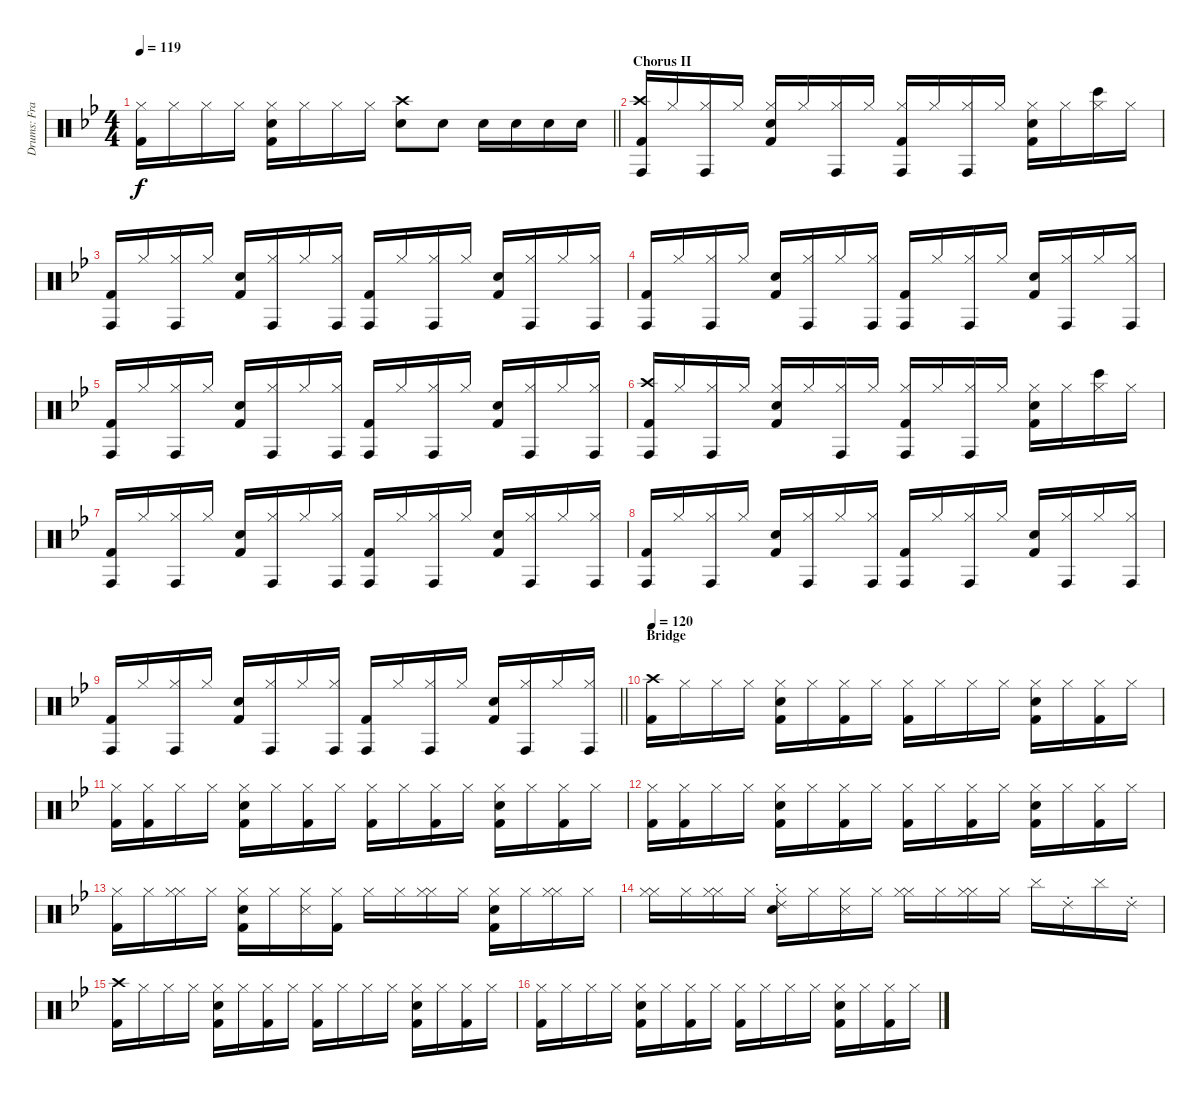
\track ("Drums: Frank" "Drums: Fra") {instrument percussion}
\staff {score}
\articulation defaults
\ts (4 4)
\tempo 119
\clef neutral
\barLineRight lightlight
\ks bb
("Hi-Hat (closed)" "Kick (hit) 2").16{dy f} "Hi-Hat (closed)".16 "Hi-Hat (closed)".16 "Hi-Hat (closed)".16 ("Hi-Hat (closed)" "Electric Snare (hit)" "Kick (hit) 2").16 "Hi-Hat (closed)".16 "Hi-Hat (closed)".16 "Hi-Hat (closed)".16 ("Crash high (hit)" "Snare (hit) 2").8 "Snare (hit) 2".8 "Snare (hit) 2".16 "Snare (hit) 2".16 "Snare (hit) 2".16 "Snare (hit) 2".16 |
\section ("" "Chorus II")
("Crash high (hit)" "Conga high (hit)" "Kick (hit) 2").16 "Hi-Hat (closed)".16 ("Hi-Hat (closed)" "Conga high (hit)").16 "Hi-Hat (closed)".16 ("Hi-Hat (closed)" "Snare (hit) 2" "Kick (hit) 2").16 "Hi-Hat (closed)".16 ("Hi-Hat (closed)" "Conga high (hit)").16 "Hi-Hat (closed)".16 ("Hi-Hat (closed)" "Conga high (hit)" "Kick (hit) 2").16 "Hi-Hat (closed)".16 ("Hi-Hat (closed)" "Conga high (hit)").16 "Hi-Hat (closed)".16 ("Hi-Hat (closed)" "Snare (hit) 2" "Kick (hit) 2").16 "Hi-Hat (closed)".16 ("Hi-Hat (closed)" "Bongo High (hit)").16 "Hi-Hat (closed)".16 |
("Conga high (hit)" "Kick (hit) 2").16 "Hi-Hat (closed)".16 ("Hi-Hat (closed)" "Conga high (hit)").16 "Hi-Hat (closed)".16 ("Electric Snare (hit)" "Kick (hit) 2").16 ("Hi-Hat (closed)" "Conga high (hit)").16 "Hi-Hat (closed)".16 ("Hi-Hat (closed)" "Conga high (hit)").16 ("Conga high (hit)" "Kick (hit) 2").16 "Hi-Hat (closed)".16 ("Hi-Hat (closed)" "Conga high (hit)").16 "Hi-Hat (closed)".16 ("Electric Snare (hit)" "Kick (hit) 2").16 ("Hi-Hat (closed)" "Conga high (hit)").16 "Hi-Hat (closed)".16 ("Hi-Hat (closed)" "Conga high (hit)").16 |
("Conga high (hit)" "Kick (hit) 2").16 "Hi-Hat (closed)".16 ("Hi-Hat (closed)" "Conga high (hit)").16 "Hi-Hat (closed)".16 ("Electric Snare (hit)" "Kick (hit) 2").16 ("Hi-Hat (closed)" "Conga high (hit)").16 "Hi-Hat (closed)".16 ("Hi-Hat (closed)" "Conga high (hit)").16 ("Conga high (hit)" "Kick (hit) 2").16 "Hi-Hat (closed)".16 ("Hi-Hat (closed)" "Conga high (hit)").16 "Hi-Hat (closed)".16 ("Electric Snare (hit)" "Kick (hit) 2").16 ("Hi-Hat (closed)" "Conga high (hit)").16 "Hi-Hat (closed)".16 ("Hi-Hat (closed)" "Conga high (hit)").16 |
("Conga high (hit)" "Kick (hit) 2").16 "Hi-Hat (closed)".16 ("Hi-Hat (closed)" "Conga high (hit)").16 "Hi-Hat (closed)".16 ("Electric Snare (hit)" "Kick (hit) 2").16 ("Hi-Hat (closed)" "Conga high (hit)").16 "Hi-Hat (closed)".16 ("Hi-Hat (closed)" "Conga high (hit)").16 ("Conga high (hit)" "Kick (hit) 2").16 "Hi-Hat (closed)".16 ("Hi-Hat (closed)" "Conga high (hit)").16 "Hi-Hat (closed)".16 ("Electric Snare (hit)" "Kick (hit) 2").16 ("Hi-Hat (closed)" "Conga high (hit)").16 "Hi-Hat (closed)".16 ("Hi-Hat (closed)" "Conga high (hit)").16 |
("Crash high (hit)" "Conga high (hit)" "Kick (hit) 2").16 "Hi-Hat (closed)".16 ("Hi-Hat (closed)" "Conga high (hit)").16 "Hi-Hat (closed)".16 ("Hi-Hat (closed)" "Snare (hit) 2" "Kick (hit) 2").16 "Hi-Hat (closed)".16 ("Hi-Hat (closed)" "Conga high (hit)").16 "Hi-Hat (closed)".16 ("Hi-Hat (closed)" "Conga high (hit)" "Kick (hit) 2").16 "Hi-Hat (closed)".16 ("Hi-Hat (closed)" "Conga high (hit)").16 "Hi-Hat (closed)".16 ("Hi-Hat (closed)" "Snare (hit) 2" "Kick (hit) 2").16 "Hi-Hat (closed)".16 ("Hi-Hat (closed)" "Bongo High (hit)").16 "Hi-Hat (closed)".16 |
("Conga high (hit)" "Kick (hit) 2").16 "Hi-Hat (closed)".16 ("Hi-Hat (closed)" "Conga high (hit)").16 "Hi-Hat (closed)".16 ("Electric Snare (hit)" "Kick (hit) 2").16 ("Hi-Hat (closed)" "Conga high (hit)").16 "Hi-Hat (closed)".16 ("Hi-Hat (closed)" "Conga high (hit)").16 ("Conga high (hit)" "Kick (hit) 2").16 "Hi-Hat (closed)".16 ("Hi-Hat (closed)" "Conga high (hit)").16 "Hi-Hat (closed)".16 ("Electric Snare (hit)" "Kick (hit) 2").16 ("Hi-Hat (closed)" "Conga high (hit)").16 "Hi-Hat (closed)".16 ("Hi-Hat (closed)" "Conga high (hit)").16 |
("Conga high (hit)" "Kick (hit) 2").16 "Hi-Hat (closed)".16 ("Hi-Hat (closed)" "Conga high (hit)").16 "Hi-Hat (closed)".16 ("Electric Snare (hit)" "Kick (hit) 2").16 ("Hi-Hat (closed)" "Conga high (hit)").16 "Hi-Hat (closed)".16 ("Hi-Hat (closed)" "Conga high (hit)").16 ("Conga high (hit)" "Kick (hit) 2").16 "Hi-Hat (closed)".16 ("Hi-Hat (closed)" "Conga high (hit)").16 "Hi-Hat (closed)".16 ("Electric Snare (hit)" "Kick (hit) 2").16 ("Hi-Hat (closed)" "Conga high (hit)").16 "Hi-Hat (closed)".16 ("Hi-Hat (closed)" "Conga high (hit)").16 |
\barLineRight lightlight
("Conga high (hit)" "Kick (hit) 2").16 "Hi-Hat (closed)".16 ("Hi-Hat (closed)" "Conga high (hit)").16 "Hi-Hat (closed)".16 ("Electric Snare (hit)" "Kick (hit) 2").16 ("Hi-Hat (closed)" "Conga high (hit)").16 "Hi-Hat (closed)".16 ("Hi-Hat (closed)" "Conga high (hit)").16 ("Conga high (hit)" "Kick (hit) 2").16 "Hi-Hat (closed)".16 ("Hi-Hat (closed)" "Conga high (hit)").16 "Hi-Hat (closed)".16 ("Electric Snare (hit)" "Kick (hit) 2").16 ("Hi-Hat (closed)" "Conga high (hit)").16 "Hi-Hat (closed)".16 ("Hi-Hat (closed)" "Conga high (hit)").16 |
\section ("" "Bridge")
\tempo 120
("Crash high (hit)" "Kick (hit) 2").16 "Hi-Hat (closed)".16 "Hi-Hat (closed)".16 "Hi-Hat (closed)".16 ("Hi-Hat (closed)" "Electric Snare (hit)" "Kick (hit) 2").16 "Hi-Hat (closed)".16 ("Hi-Hat (closed)" "Kick (hit) 2").16 "Hi-Hat (closed)".16 ("Hi-Hat (closed)" "Kick (hit) 2").16 "Hi-Hat (closed)".16 "Hi-Hat (closed)".16 "Hi-Hat (closed)".16 ("Hi-Hat (closed)" "Electric Snare (hit)" "Kick (hit) 2").16 "Hi-Hat (closed)".16 ("Hi-Hat (closed)" "Kick (hit) 2").16 "Hi-Hat (closed)".16 |
("Hi-Hat (closed)" "Kick (hit) 2").16 ("Hi-Hat (closed)" "Kick (hit) 2").16 "Hi-Hat (closed)".16 "Hi-Hat (closed)".16 ("Hi-Hat (closed)" "Electric Snare (hit)" "Kick (hit) 2").16 "Hi-Hat (closed)".16 ("Hi-Hat (closed)" "Kick (hit) 2").16 "Hi-Hat (closed)".16 ("Hi-Hat (closed)" "Kick (hit) 2").16 "Hi-Hat (closed)".16 ("Hi-Hat (closed)" "Kick (hit) 2").16 "Hi-Hat (closed)".16 ("Hi-Hat (closed)" "Electric Snare (hit)" "Kick (hit) 2").16 "Hi-Hat (closed)".16 ("Hi-Hat (closed)" "Kick (hit) 2").16 "Hi-Hat (closed)".16 |
("Hi-Hat (closed)" "Kick (hit) 2").16 ("Hi-Hat (closed)" "Kick (hit) 2").16 "Hi-Hat (closed)".16 "Hi-Hat (closed)".16 ("Hi-Hat (closed)" "Electric Snare (hit)" "Kick (hit) 2").16 "Hi-Hat (closed)".16 ("Hi-Hat (closed)" "Kick (hit) 2").16 "Hi-Hat (closed)".16 ("Hi-Hat (closed)" "Kick (hit) 2").16 "Hi-Hat (closed)".16 ("Hi-Hat (closed)" "Kick (hit) 2").16 "Hi-Hat (closed)".16 ("Hi-Hat (closed)" "Electric Snare (hit)" "Kick (hit) 2").16 "Hi-Hat (closed)".16 ("Hi-Hat (closed)" "Kick (hit) 2").16 "Hi-Hat (closed)".16 |
("Hi-Hat (closed)" "Kick (hit) 2").16 "Hi-Hat (closed)".16 ("Hi-Hat (closed)" "Hi-Hat (closed)").16 "Hi-Hat (closed)".16 ("Hi-Hat (closed)" "Electric Snare (hit)" "Kick (hit) 2").16 "Hi-Hat (closed)".16 ("Hi-Hat (closed)" "Snare (side stick) 3").16 ("Hi-Hat (closed)" "Kick (hit) 2").16 "Hi-Hat (closed)".16 "Hi-Hat (closed)".16 ("Hi-Hat (closed)" "Hi-Hat (closed)").16 "Hi-Hat (closed)".16 ("Hi-Hat (closed)" "Electric Snare (hit)" "Kick (hit) 2").16 "Hi-Hat (closed)".16 ("Hi-Hat (closed)" "Hi-Hat (closed)").16 "Hi-Hat (closed)".16 |
("Hi-Hat (closed)" "Hi-Hat (closed)").16 "Hi-Hat (closed)".16 ("Hi-Hat (closed)" "Hi-Hat (closed)").16 "Hi-Hat (closed)".16 ("Hi-Hat (closed)" "Electric Snare (hit)" "Ride (choke) 2").16 "Hi-Hat (closed)".16 ("Hi-Hat (closed)" "Snare (side stick) 3").16 "Hi-Hat (closed)".16 ("Hi-Hat (closed)" "Hi-Hat (closed)").16 "Hi-Hat (closed)".16 ("Hi-Hat (closed)" "Hi-Hat (closed)").16 "Hi-Hat (closed)".16 "Cymbal (hit)".16 "Ride (choke) 2".16 "Cymbal (hit)".16 "Ride (choke) 2".16 |
("Crash high (hit)" "Kick (hit) 2").16 "Hi-Hat (closed)".16 "Hi-Hat (closed)".16 "Hi-Hat (closed)".16 ("Hi-Hat (closed)" "Electric Snare (hit)" "Kick (hit) 2").16 "Hi-Hat (closed)".16 ("Hi-Hat (closed)" "Kick (hit) 2").16 "Hi-Hat (closed)".16 ("Hi-Hat (closed)" "Kick (hit) 2").16 "Hi-Hat (closed)".16 "Hi-Hat (closed)".16 "Hi-Hat (closed)".16 ("Hi-Hat (closed)" "Electric Snare (hit)" "Kick (hit) 2").16 "Hi-Hat (closed)".16 ("Hi-Hat (closed)" "Kick (hit) 2").16 "Hi-Hat (closed)".16 |
("Hi-Hat (closed)" "Kick (hit) 2").16 "Hi-Hat (closed)".16 "Hi-Hat (closed)".16 "Hi-Hat (closed)".16 ("Hi-Hat (closed)" "Electric Snare (hit)" "Kick (hit) 2").16 "Hi-Hat (closed)".16 ("Hi-Hat (closed)" "Kick (hit) 2").16 "Hi-Hat (closed)".16 ("Hi-Hat (closed)" "Kick (hit) 2").16 "Hi-Hat (closed)".16 "Hi-Hat (closed)".16 "Hi-Hat (closed)".16 ("Hi-Hat (closed)" "Electric Snare (hit)" "Kick (hit) 2").16 "Hi-Hat (closed)".16 ("Hi-Hat (closed)" "Kick (hit) 2").16 "Hi-Hat (closed)".16
